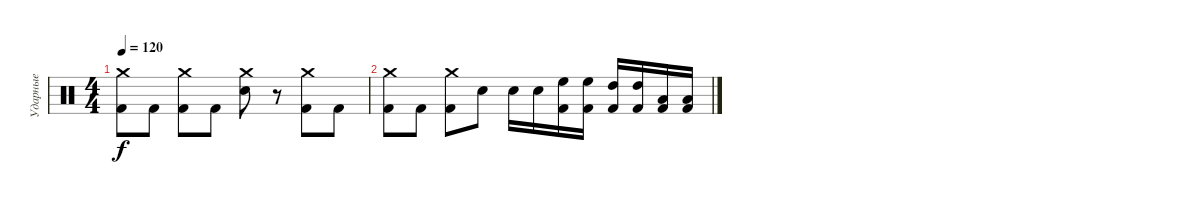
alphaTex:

\track ("Ударные" "Ударные") {instrument percussion}
\staff {score}
\articulation defaults
\ts (4 4)
\tempo 120
\clef neutral
\ks c
("Crash medium (hit)" "Kick (hit) 2").8{dy f} "Kick (hit) 2".8 ("Crash medium (hit)" "Kick (hit) 2").8 "Kick (hit) 2".8 ("Crash medium (hit)" "Electric Snare (hit)").8 r.8 ("Crash medium (hit)" "Kick (hit) 2").8 "Kick (hit) 2".8 |
("Crash medium (hit)" "Kick (hit) 2").8 "Kick (hit) 2".8 ("Crash medium (hit)" "Kick (hit) 2").8 "Electric Snare (hit)".8 "Electric Snare (hit)".16 "Electric Snare (hit)".16 ("High Floor Tom (hit)" "Kick (hit) 2").16 ("High Floor Tom (hit)" "Kick (hit) 2").16 ("High Tom (hit)" "Kick (hit) 2").16 ("High Tom (hit)" "Kick (hit) 2").16 ("Low Tom (hit)" "Kick (hit) 2").16 ("Low Tom (hit)" "Kick (hit) 2").16
